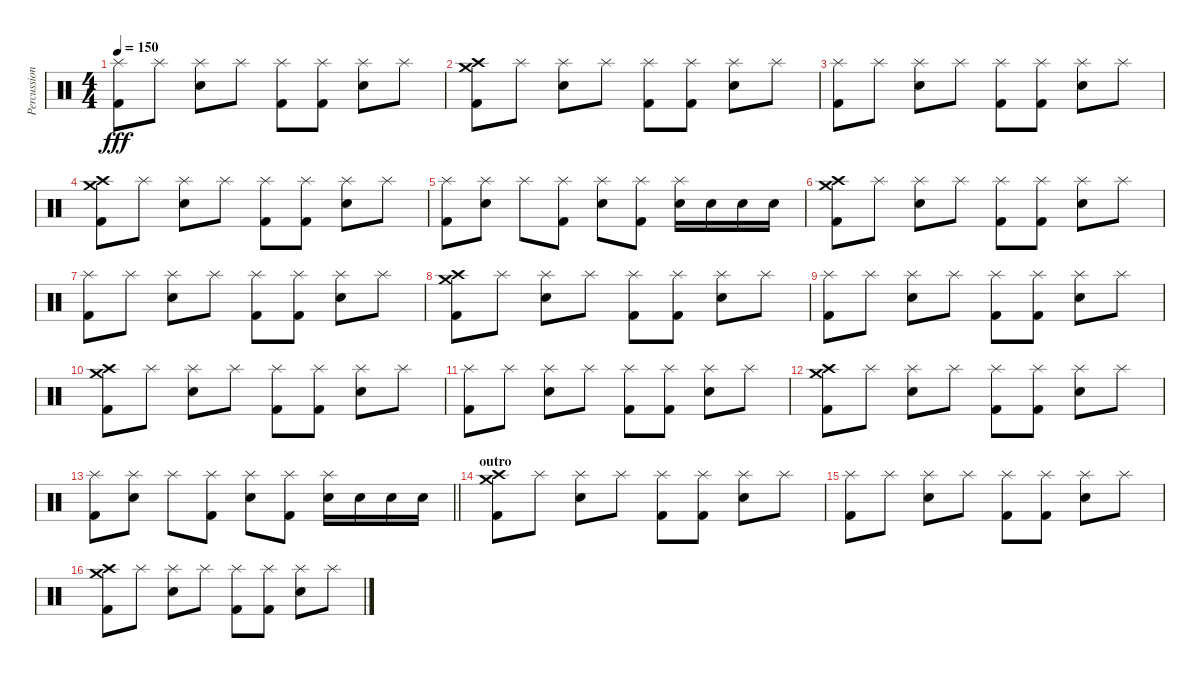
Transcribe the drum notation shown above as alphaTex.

\track ("Percussion" "Percussion") {instrument percussion}
\staff {score}
\articulation defaults
\ts (4 4)
\tempo 150
\clef neutral
\ks c
("Splash (hit)" "Kick (hit) 2").8{dy fff} "Splash (hit)".8 ("Splash (hit)" "Electric Snare (hit)").8 "Splash (hit)".8 ("Splash (hit)" "Kick (hit) 2").8 ("Splash (hit)" "Kick (hit) 2").8 ("Splash (hit)" "Electric Snare (hit)").8 "Splash (hit)".8 |
("Crash high (hit)" "Kick (hit) 2" "Crash medium (hit)").8 "Splash (hit)".8 ("Splash (hit)" "Electric Snare (hit)").8 "Splash (hit)".8 ("Splash (hit)" "Kick (hit) 2").8 ("Splash (hit)" "Kick (hit) 2").8 ("Splash (hit)" "Electric Snare (hit)").8 "Splash (hit)".8 |
("Splash (hit)" "Kick (hit) 2").8 "Splash (hit)".8 ("Splash (hit)" "Electric Snare (hit)").8 "Splash (hit)".8 ("Splash (hit)" "Kick (hit) 2").8 ("Splash (hit)" "Kick (hit) 2").8 ("Splash (hit)" "Electric Snare (hit)").8 "Splash (hit)".8 |
("Crash high (hit)" "Kick (hit) 2" "Crash medium (hit)").8 "Splash (hit)".8 ("Splash (hit)" "Electric Snare (hit)").8 "Splash (hit)".8 ("Splash (hit)" "Kick (hit) 2").8 ("Splash (hit)" "Kick (hit) 2").8 ("Splash (hit)" "Electric Snare (hit)").8 "Splash (hit)".8 |
("Splash (hit)" "Kick (hit) 2").8 ("Splash (hit)" "Electric Snare (hit)").8 "Splash (hit)".8 ("Splash (hit)" "Kick (hit) 2").8 ("Splash (hit)" "Electric Snare (hit)").8 ("Splash (hit)" "Kick (hit) 2").8 ("Splash (hit)" "Electric Snare (hit)").16 "Electric Snare (hit)".16 "Electric Snare (hit)".16 "Electric Snare (hit)".16 |
("Crash high (hit)" "Kick (hit) 2" "Crash medium (hit)").8 "Splash (hit)".8 ("Splash (hit)" "Electric Snare (hit)").8 "Splash (hit)".8 ("Splash (hit)" "Kick (hit) 2").8 ("Splash (hit)" "Kick (hit) 2").8 ("Splash (hit)" "Electric Snare (hit)").8 "Splash (hit)".8 |
("Splash (hit)" "Kick (hit) 2").8 "Splash (hit)".8 ("Splash (hit)" "Electric Snare (hit)").8 "Splash (hit)".8 ("Splash (hit)" "Kick (hit) 2").8 ("Splash (hit)" "Kick (hit) 2").8 ("Splash (hit)" "Electric Snare (hit)").8 "Splash (hit)".8 |
("Crash high (hit)" "Kick (hit) 2" "Crash medium (hit)").8 "Splash (hit)".8 ("Splash (hit)" "Electric Snare (hit)").8 "Splash (hit)".8 ("Splash (hit)" "Kick (hit) 2").8 ("Splash (hit)" "Kick (hit) 2").8 ("Splash (hit)" "Electric Snare (hit)").8 "Splash (hit)".8 |
("Splash (hit)" "Kick (hit) 2").8 "Splash (hit)".8 ("Splash (hit)" "Electric Snare (hit)").8 "Splash (hit)".8 ("Splash (hit)" "Kick (hit) 2").8 ("Splash (hit)" "Kick (hit) 2").8 ("Splash (hit)" "Electric Snare (hit)").8 "Splash (hit)".8 |
("Crash high (hit)" "Kick (hit) 2" "Crash medium (hit)").8 "Splash (hit)".8 ("Splash (hit)" "Electric Snare (hit)").8 "Splash (hit)".8 ("Splash (hit)" "Kick (hit) 2").8 ("Splash (hit)" "Kick (hit) 2").8 ("Splash (hit)" "Electric Snare (hit)").8 "Splash (hit)".8 |
("Splash (hit)" "Kick (hit) 2").8 "Splash (hit)".8 ("Splash (hit)" "Electric Snare (hit)").8 "Splash (hit)".8 ("Splash (hit)" "Kick (hit) 2").8 ("Splash (hit)" "Kick (hit) 2").8 ("Splash (hit)" "Electric Snare (hit)").8 "Splash (hit)".8 |
("Crash high (hit)" "Kick (hit) 2" "Crash medium (hit)").8 "Splash (hit)".8 ("Splash (hit)" "Electric Snare (hit)").8 "Splash (hit)".8 ("Splash (hit)" "Kick (hit) 2").8 ("Splash (hit)" "Kick (hit) 2").8 ("Splash (hit)" "Electric Snare (hit)").8 "Splash (hit)".8 |
\barLineRight lightlight
("Splash (hit)" "Kick (hit) 2").8 ("Splash (hit)" "Electric Snare (hit)").8 "Splash (hit)".8 ("Splash (hit)" "Kick (hit) 2").8 ("Splash (hit)" "Electric Snare (hit)").8 ("Splash (hit)" "Kick (hit) 2").8 ("Splash (hit)" "Electric Snare (hit)").16 "Electric Snare (hit)".16 "Electric Snare (hit)".16 "Electric Snare (hit)".16 |
\section ("" "outro")
("Crash high (hit)" "Kick (hit) 2" "Crash medium (hit)").8 "Splash (hit)".8 ("Splash (hit)" "Electric Snare (hit)").8 "Splash (hit)".8 ("Splash (hit)" "Kick (hit) 2").8 ("Splash (hit)" "Kick (hit) 2").8 ("Splash (hit)" "Electric Snare (hit)").8 "Splash (hit)".8 |
("Splash (hit)" "Kick (hit) 2").8 "Splash (hit)".8 ("Splash (hit)" "Electric Snare (hit)").8 "Splash (hit)".8 ("Splash (hit)" "Kick (hit) 2").8 ("Splash (hit)" "Kick (hit) 2").8 ("Splash (hit)" "Electric Snare (hit)").8 "Splash (hit)".8 |
("Crash high (hit)" "Kick (hit) 2" "Crash medium (hit)").8 "Splash (hit)".8 ("Splash (hit)" "Electric Snare (hit)").8 "Splash (hit)".8 ("Splash (hit)" "Kick (hit) 2").8 ("Splash (hit)" "Kick (hit) 2").8 ("Splash (hit)" "Electric Snare (hit)").8 "Splash (hit)".8
